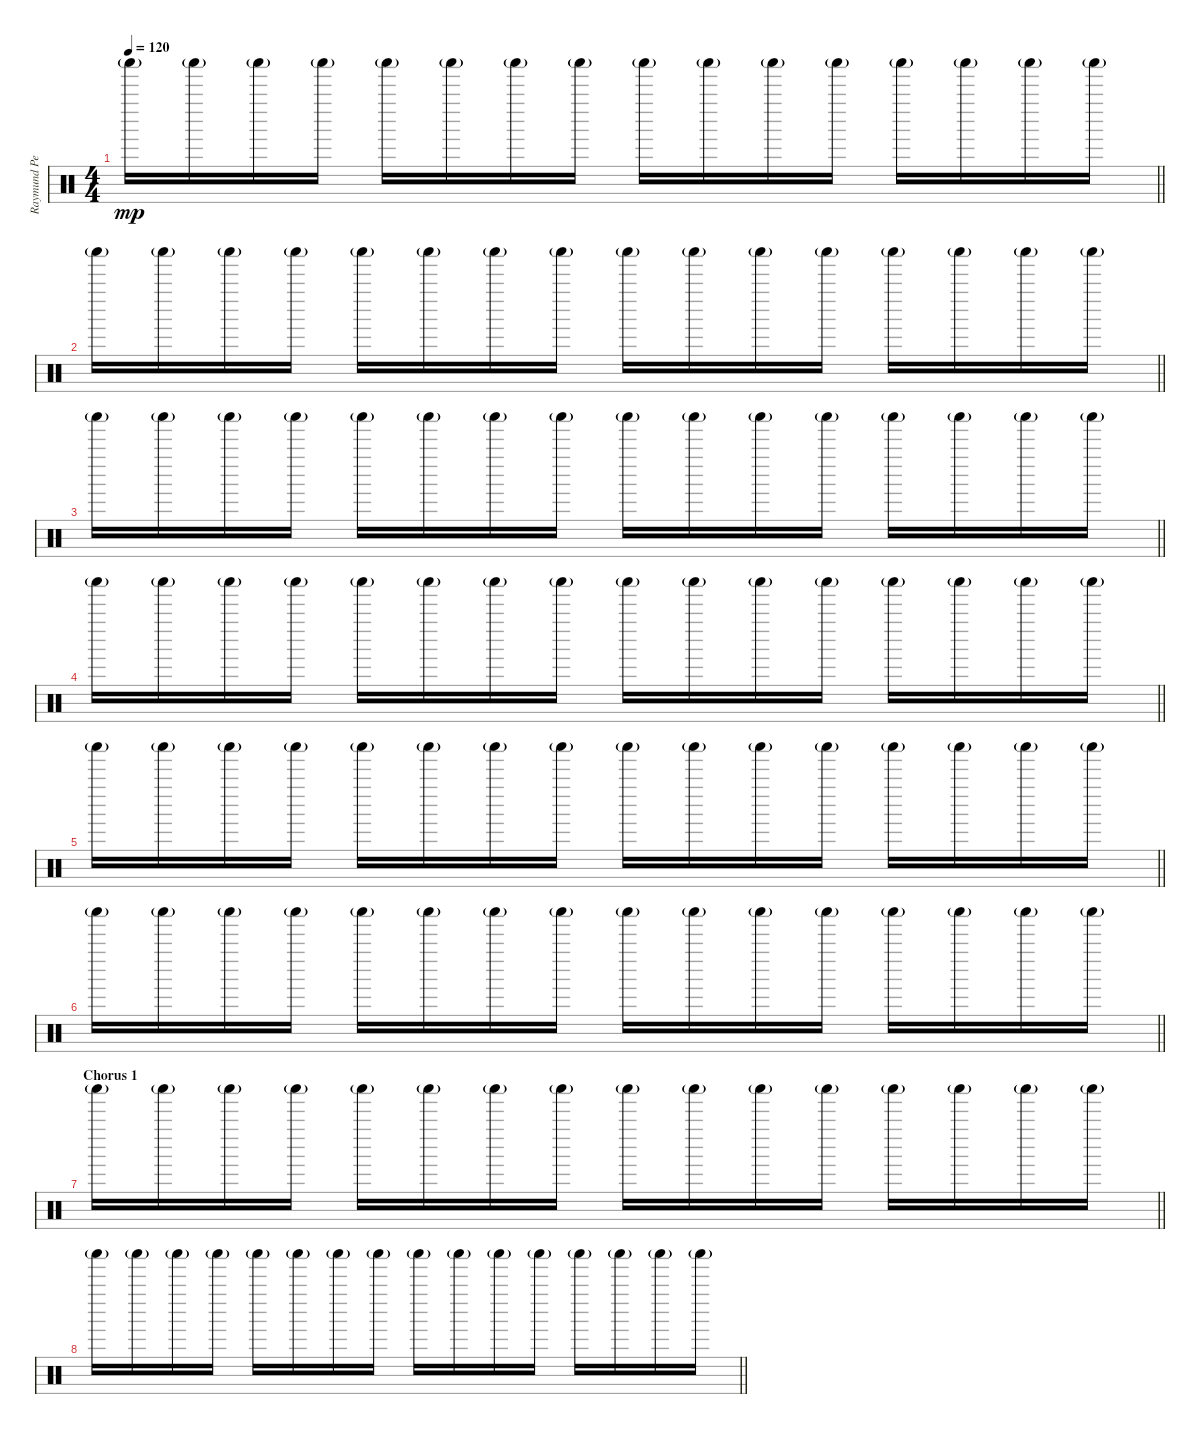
\track ("Raymund Percussion" "Raymund Pe") {instrument percussion}
\staff {score}
\articulation defaults
\ts (4 4)
\tempo 120
\clef neutral
\barLineRight lightlight
\ks c "Shaker (hit)"{g}.16{dy mp} "Shaker (hit)"{g}.16 "Shaker (hit)"{g}.16 "Shaker (hit)"{g}.16 "Shaker (hit)"{g}.16 "Shaker (hit)"{g}.16 "Shaker (hit)"{g}.16 "Shaker (hit)"{g}.16 "Shaker (hit)"{g}.16 "Shaker (hit)"{g}.16 "Shaker (hit)"{g}.16 "Shaker (hit)"{g}.16 "Shaker (hit)"{g}.16 "Shaker (hit)"{g}.16 "Shaker (hit)"{g}.16 "Shaker (hit)"{g}.16
|
\barLineRight lightlight "Shaker (hit)"{g}.16 "Shaker (hit)"{g}.16 "Shaker (hit)"{g}.16 "Shaker (hit)"{g}.16 "Shaker (hit)"{g}.16 "Shaker (hit)"{g}.16 "Shaker (hit)"{g}.16 "Shaker (hit)"{g}.16 "Shaker (hit)"{g}.16 "Shaker (hit)"{g}.16 "Shaker (hit)"{g}.16 "Shaker (hit)"{g}.16 "Shaker (hit)"{g}.16 "Shaker (hit)"{g}.16 "Shaker (hit)"{g}.16 "Shaker (hit)"{g}.16
|
\barLineRight lightlight "Shaker (hit)"{g}.16 "Shaker (hit)"{g}.16 "Shaker (hit)"{g}.16 "Shaker (hit)"{g}.16 "Shaker (hit)"{g}.16 "Shaker (hit)"{g}.16 "Shaker (hit)"{g}.16 "Shaker (hit)"{g}.16 "Shaker (hit)"{g}.16 "Shaker (hit)"{g}.16 "Shaker (hit)"{g}.16 "Shaker (hit)"{g}.16 "Shaker (hit)"{g}.16 "Shaker (hit)"{g}.16 "Shaker (hit)"{g}.16 "Shaker (hit)"{g}.16
|
\barLineRight lightlight "Shaker (hit)"{g}.16 "Shaker (hit)"{g}.16 "Shaker (hit)"{g}.16 "Shaker (hit)"{g}.16 "Shaker (hit)"{g}.16 "Shaker (hit)"{g}.16 "Shaker (hit)"{g}.16 "Shaker (hit)"{g}.16 "Shaker (hit)"{g}.16 "Shaker (hit)"{g}.16 "Shaker (hit)"{g}.16 "Shaker (hit)"{g}.16 "Shaker (hit)"{g}.16 "Shaker (hit)"{g}.16 "Shaker (hit)"{g}.16 "Shaker (hit)"{g}.16
|
\barLineRight lightlight "Shaker (hit)"{g}.16 "Shaker (hit)"{g}.16 "Shaker (hit)"{g}.16 "Shaker (hit)"{g}.16 "Shaker (hit)"{g}.16 "Shaker (hit)"{g}.16 "Shaker (hit)"{g}.16 "Shaker (hit)"{g}.16 "Shaker (hit)"{g}.16 "Shaker (hit)"{g}.16 "Shaker (hit)"{g}.16 "Shaker (hit)"{g}.16 "Shaker (hit)"{g}.16 "Shaker (hit)"{g}.16 "Shaker (hit)"{g}.16 "Shaker (hit)"{g}.16
|
\barLineRight lightlight "Shaker (hit)"{g}.16 "Shaker (hit)"{g}.16 "Shaker (hit)"{g}.16 "Shaker (hit)"{g}.16 "Shaker (hit)"{g}.16 "Shaker (hit)"{g}.16 "Shaker (hit)"{g}.16 "Shaker (hit)"{g}.16 "Shaker (hit)"{g}.16 "Shaker (hit)"{g}.16 "Shaker (hit)"{g}.16 "Shaker (hit)"{g}.16 "Shaker (hit)"{g}.16 "Shaker (hit)"{g}.16 "Shaker (hit)"{g}.16 "Shaker (hit)"{g}.16
|
\section ("" "Chorus 1")
\barLineRight lightlight "Shaker (hit)"{g}.16 "Shaker (hit)"{g}.16 "Shaker (hit)"{g}.16 "Shaker (hit)"{g}.16 "Shaker (hit)"{g}.16 "Shaker (hit)"{g}.16 "Shaker (hit)"{g}.16 "Shaker (hit)"{g}.16 "Shaker (hit)"{g}.16 "Shaker (hit)"{g}.16 "Shaker (hit)"{g}.16 "Shaker (hit)"{g}.16 "Shaker (hit)"{g}.16 "Shaker (hit)"{g}.16 "Shaker (hit)"{g}.16 "Shaker (hit)"{g}.16
|
\barLineRight lightlight "Shaker (hit)"{g}.16 "Shaker (hit)"{g}.16 "Shaker (hit)"{g}.16 "Shaker (hit)"{g}.16 "Shaker (hit)"{g}.16 "Shaker (hit)"{g}.16 "Shaker (hit)"{g}.16 "Shaker (hit)"{g}.16 "Shaker (hit)"{g}.16 "Shaker (hit)"{g}.16 "Shaker (hit)"{g}.16 "Shaker (hit)"{g}.16 "Shaker (hit)"{g}.16 "Shaker (hit)"{g}.16 "Shaker (hit)"{g}.16 "Shaker (hit)"{g}.16
